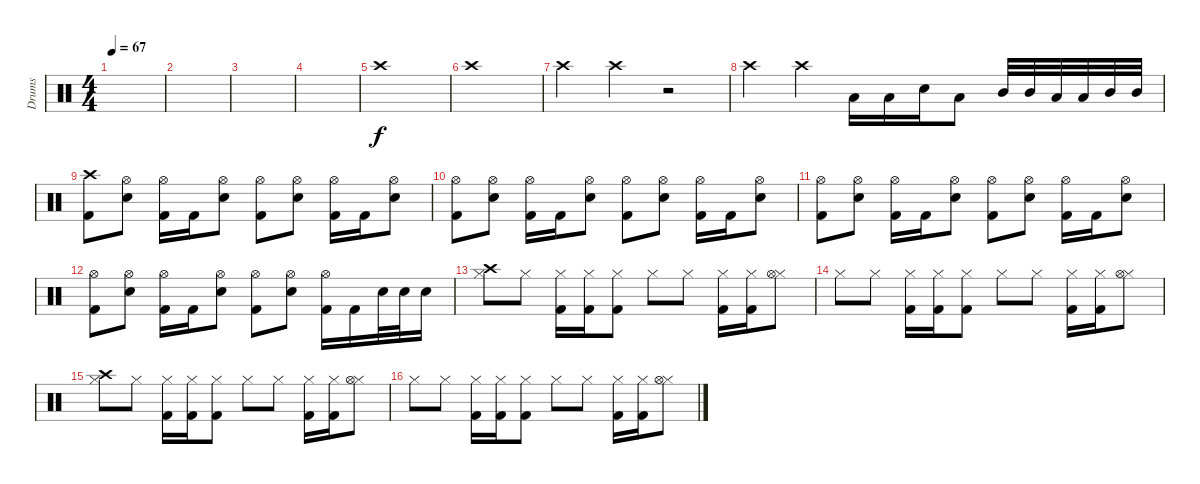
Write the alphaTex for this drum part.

\track ("Drums" "Drums") {instrument percussion}
\staff {score}
\articulation defaults
\ts (4 4)
\tempo 67
\clef neutral
\ks c
|
|
|
|
"Crash high (hit)".1 |
"Crash high (hit)".1 |
"Crash high (hit)".4 "Crash high (hit)".4 r.2 |
"Crash high (hit)".4 "Crash high (hit)".4 "Low Tom (hit)".16 "Low Tom (hit)".16 "Snare (hit) 2".16 "Low Tom (hit)".8 "Mid Tom (hit)".32 "Mid Tom (hit)".32 "Low Tom (hit)".32 "Low Tom (hit)".32 "Mid Tom (hit)".32 "Mid Tom (hit)".32 |
("Crash high (hit)" "Kick (hit) 2").8 ("Hi-Hat (open)" "Electric Snare (hit)").8 ("Hi-Hat (open)" "Kick (hit) 2").16 "Kick (hit) 2".16 ("Hi-Hat (open)" "Electric Snare (hit)").8 ("Hi-Hat (open)" "Kick (hit) 2").8 ("Hi-Hat (open)" "Electric Snare (hit)").8 ("Hi-Hat (open)" "Kick (hit) 2").16 "Kick (hit) 2".16 ("Hi-Hat (open)" "Electric Snare (hit)").8 |
("Hi-Hat (open)" "Kick (hit) 2").8 ("Hi-Hat (open)" "Electric Snare (hit)").8 ("Hi-Hat (open)" "Kick (hit) 2").16 "Kick (hit) 2".16 ("Hi-Hat (open)" "Electric Snare (hit)").8 ("Hi-Hat (open)" "Kick (hit) 2").8 ("Hi-Hat (open)" "Electric Snare (hit)").8 ("Hi-Hat (open)" "Kick (hit) 2").16 "Kick (hit) 2".16 ("Hi-Hat (open)" "Electric Snare (hit)").8 |
("Hi-Hat (open)" "Kick (hit) 2").8 ("Hi-Hat (open)" "Electric Snare (hit)").8 ("Hi-Hat (open)" "Kick (hit) 2").16 "Kick (hit) 2".16 ("Hi-Hat (open)" "Electric Snare (hit)").8 ("Hi-Hat (open)" "Kick (hit) 2").8 ("Hi-Hat (open)" "Electric Snare (hit)").8 ("Hi-Hat (open)" "Kick (hit) 2").16 "Kick (hit) 2".16 ("Hi-Hat (open)" "Electric Snare (hit)").8 |
("Hi-Hat (open)" "Kick (hit) 2").8 ("Hi-Hat (open)" "Electric Snare (hit)").8 ("Hi-Hat (open)" "Kick (hit) 2").16 "Kick (hit) 2".16 ("Hi-Hat (open)" "Electric Snare (hit)").8 ("Hi-Hat (open)" "Kick (hit) 2").8 ("Hi-Hat (open)" "Electric Snare (hit)").8 ("Hi-Hat (open)" "Kick (hit) 2").16 "Kick (hit) 2".16 "Snare (hit) 2".32 "Snare (hit) 2".32 "Snare (hit) 2".16 |
("Crash high (hit)" "Hi-Hat (closed)").8 "Hi-Hat (closed)".8 ("Hi-Hat (closed)" "Kick (hit) 2").16 ("Hi-Hat (closed)" "Kick (hit) 2").16 ("Hi-Hat (closed)" "Kick (hit) 2").8 "Hi-Hat (closed)".8 "Hi-Hat (closed)".8 ("Hi-Hat (closed)" "Kick (hit) 2").16 ("Hi-Hat (closed)" "Kick (hit) 2").16 ("Hi-Hat (closed)" "Hi-Hat (open)").8 |
"Hi-Hat (closed)".8 "Hi-Hat (closed)".8 ("Hi-Hat (closed)" "Kick (hit) 2").16 ("Hi-Hat (closed)" "Kick (hit) 2").16 ("Hi-Hat (closed)" "Kick (hit) 2").8 "Hi-Hat (closed)".8 "Hi-Hat (closed)".8 ("Hi-Hat (closed)" "Kick (hit) 2").16 ("Hi-Hat (closed)" "Kick (hit) 2").16 ("Hi-Hat (closed)" "Hi-Hat (open)").8 |
("Crash high (hit)" "Hi-Hat (closed)").8 "Hi-Hat (closed)".8 ("Hi-Hat (closed)" "Kick (hit) 2").16 ("Hi-Hat (closed)" "Kick (hit) 2").16 ("Hi-Hat (closed)" "Kick (hit) 2").8 "Hi-Hat (closed)".8 "Hi-Hat (closed)".8 ("Hi-Hat (closed)" "Kick (hit) 2").16 ("Hi-Hat (closed)" "Kick (hit) 2").16 ("Hi-Hat (closed)" "Hi-Hat (open)").8 |
"Hi-Hat (closed)".8 "Hi-Hat (closed)".8 ("Hi-Hat (closed)" "Kick (hit) 2").16 ("Hi-Hat (closed)" "Kick (hit) 2").16 ("Hi-Hat (closed)" "Kick (hit) 2").8 "Hi-Hat (closed)".8 "Hi-Hat (closed)".8 ("Hi-Hat (closed)" "Kick (hit) 2").16 ("Hi-Hat (closed)" "Kick (hit) 2").16 ("Hi-Hat (closed)" "Hi-Hat (open)").8
